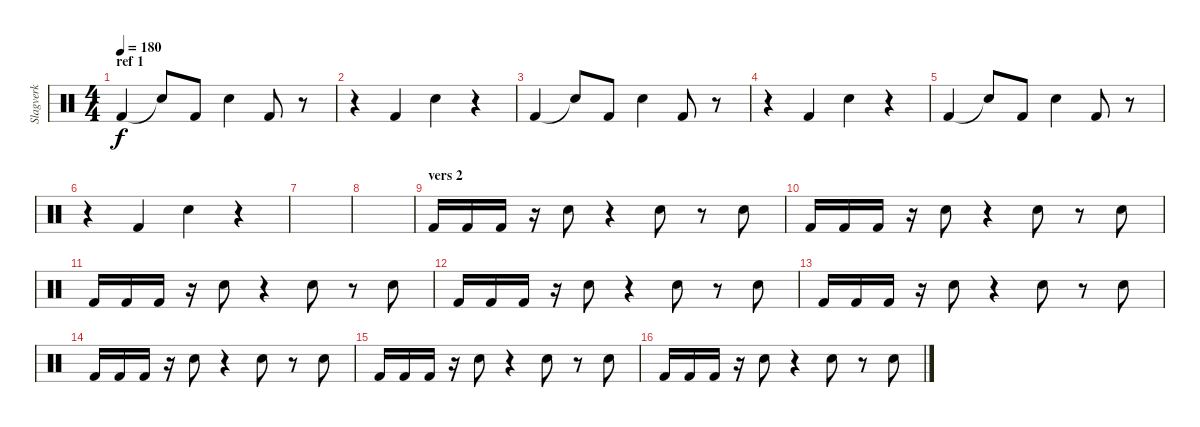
\track ("Slagverk" "Slagverk") {instrument percussion}
\staff {score}
\articulation defaults
\ts (4 4)
\section ("" "ref 1")
\tempo 180
\clef neutral
\ks c "Kick (hit) 2".4{dy f} "Snare (hit)"{t}.8 "Kick (hit) 2".8 "Electric Snare (hit)".4 "Kick (hit) 2".8
r.8 |
r.4 "Kick (hit) 2".4 "Electric Snare (hit)".4 r.4 |
"Kick (hit) 2".4 "Snare (hit)"{t}.8 "Kick (hit) 2".8 "Electric Snare (hit)".4 "Kick (hit) 2".8 r.8 |
r.4 "Kick (hit) 2".4 "Electric Snare (hit)".4 r.4 |
"Kick (hit) 2".4 "Snare (hit)"{t}.8 "Kick (hit) 2".8 "Electric Snare (hit)".4 "Kick (hit) 2".8 r.8 |
r.4 "Kick (hit) 2".4 "Electric Snare (hit)".4 r.4 |
|
|
\section ("" "vers 2")
"Kick (hit) 2".16 "Kick (hit) 2".16 "Kick (hit) 2".16 r.16 "Electric Snare (hit)".8 r.4 "Electric Snare (hit)".8 r.8 "Electric Snare (hit)".8 |
"Kick (hit) 2".16 "Kick (hit) 2".16 "Kick (hit) 2".16 r.16 "Electric Snare (hit)".8 r.4 "Electric Snare (hit)".8 r.8 "Electric Snare (hit)".8 |
"Kick (hit) 2".16 "Kick (hit) 2".16 "Kick (hit) 2".16 r.16 "Electric Snare (hit)".8 r.4 "Electric Snare (hit)".8 r.8 "Electric Snare (hit)".8 |
"Kick (hit) 2".16 "Kick (hit) 2".16 "Kick (hit) 2".16 r.16 "Electric Snare (hit)".8 r.4 "Electric Snare (hit)".8 r.8 "Electric Snare (hit)".8 |
"Kick (hit) 2".16 "Kick (hit) 2".16 "Kick (hit) 2".16 r.16 "Electric Snare (hit)".8 r.4 "Electric Snare (hit)".8 r.8 "Electric Snare (hit)".8 |
"Kick (hit) 2".16 "Kick (hit) 2".16 "Kick (hit) 2".16 r.16 "Electric Snare (hit)".8 r.4 "Electric Snare (hit)".8 r.8 "Electric Snare (hit)".8 |
"Kick (hit) 2".16 "Kick (hit) 2".16 "Kick (hit) 2".16 r.16 "Electric Snare (hit)".8 r.4 "Electric Snare (hit)".8 r.8 "Electric Snare (hit)".8 |
"Kick (hit) 2".16 "Kick (hit) 2".16 "Kick (hit) 2".16 r.16 "Electric Snare (hit)".8 r.4 "Electric Snare (hit)".8 r.8 "Electric Snare (hit)".8
